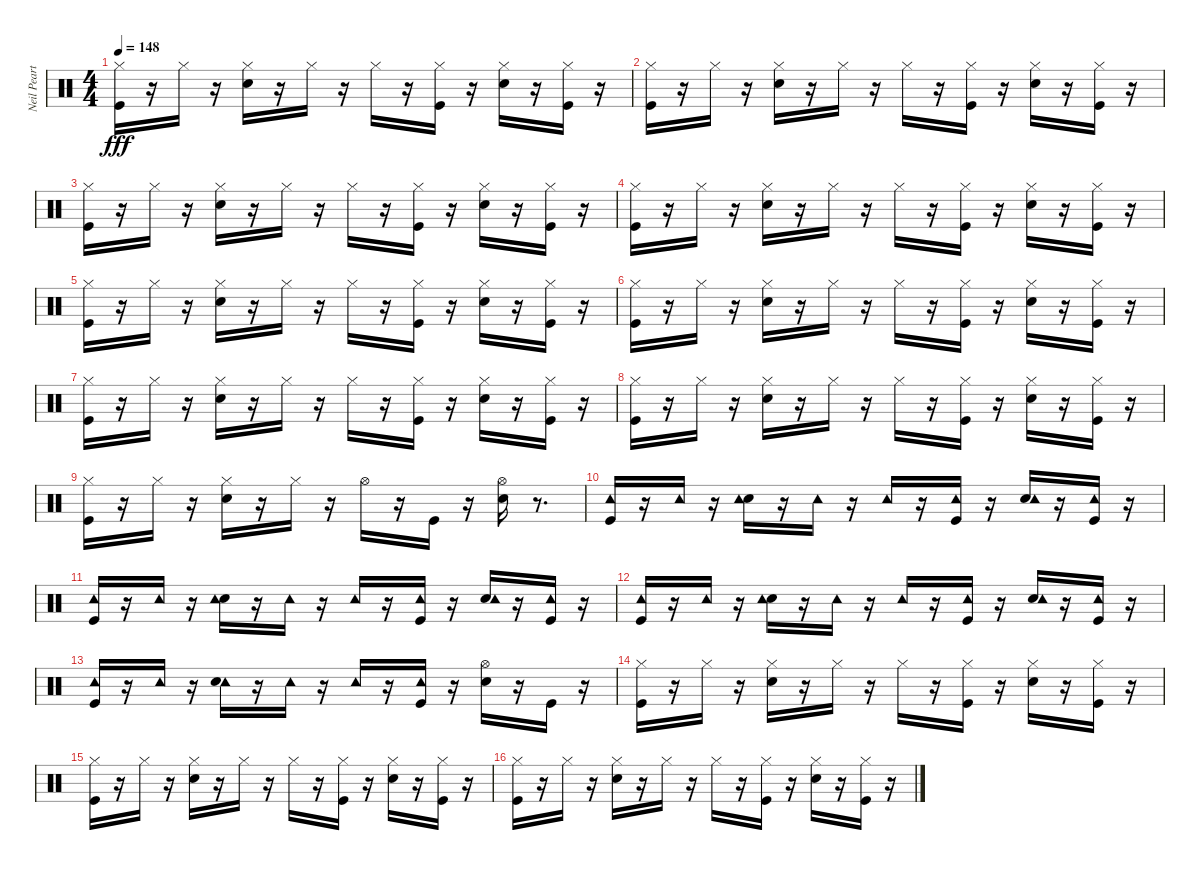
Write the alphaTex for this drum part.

\track ("Neil Peart" "Neil Peart") {instrument percussion}
\staff {score}
\articulation defaults
\ts (4 4)
\tempo 148
\clef neutral
\ks c
("Hi-Hat (closed)" "Kick (hit)").16{dy fff} r.16 "Hi-Hat (closed)".16 r.16 ("Hi-Hat (closed)" "Snare (hit) 2").16 r.16 "Hi-Hat (closed)".16 r.16 "Hi-Hat (closed)".16 r.16 ("Hi-Hat (closed)" "Kick (hit)").16 r.16 ("Hi-Hat (closed)" "Snare (hit) 2").16 r.16 ("Hi-Hat (closed)" "Kick (hit)").16 r.16 |
("Hi-Hat (closed)" "Kick (hit)").16 r.16 "Hi-Hat (closed)".16 r.16 ("Hi-Hat (closed)" "Snare (hit) 2").16 r.16 "Hi-Hat (closed)".16 r.16 "Hi-Hat (closed)".16 r.16 ("Hi-Hat (closed)" "Kick (hit)").16 r.16 ("Hi-Hat (closed)" "Snare (hit) 2").16 r.16 ("Hi-Hat (closed)" "Kick (hit)").16 r.16 |
("Hi-Hat (closed)" "Kick (hit)").16 r.16 "Hi-Hat (closed)".16 r.16 ("Hi-Hat (closed)" "Snare (hit) 2").16 r.16 "Hi-Hat (closed)".16 r.16 "Hi-Hat (closed)".16 r.16 ("Hi-Hat (closed)" "Kick (hit)").16 r.16 ("Hi-Hat (closed)" "Snare (hit) 2").16 r.16 ("Hi-Hat (closed)" "Kick (hit)").16 r.16 |
("Hi-Hat (closed)" "Kick (hit)").16 r.16 "Hi-Hat (closed)".16 r.16 ("Hi-Hat (closed)" "Snare (hit) 2").16 r.16 "Hi-Hat (closed)".16 r.16 "Hi-Hat (closed)".16 r.16 ("Hi-Hat (closed)" "Kick (hit)").16 r.16 ("Hi-Hat (closed)" "Snare (hit) 2").16 r.16 ("Hi-Hat (closed)" "Kick (hit)").16 r.16 |
("Hi-Hat (closed)" "Kick (hit)").16 r.16 "Hi-Hat (closed)".16 r.16 ("Hi-Hat (closed)" "Snare (hit) 2").16 r.16 "Hi-Hat (closed)".16 r.16 "Hi-Hat (closed)".16 r.16 ("Hi-Hat (closed)" "Kick (hit)").16 r.16 ("Hi-Hat (closed)" "Snare (hit) 2").16 r.16 ("Hi-Hat (closed)" "Kick (hit)").16 r.16 |
("Hi-Hat (closed)" "Kick (hit)").16 r.16 "Hi-Hat (closed)".16 r.16 ("Hi-Hat (closed)" "Snare (hit) 2").16 r.16 "Hi-Hat (closed)".16 r.16 "Hi-Hat (closed)".16 r.16 ("Hi-Hat (closed)" "Kick (hit)").16 r.16 ("Hi-Hat (closed)" "Snare (hit) 2").16 r.16 ("Hi-Hat (closed)" "Kick (hit)").16 r.16 |
("Hi-Hat (closed)" "Kick (hit)").16 r.16 "Hi-Hat (closed)".16 r.16 ("Hi-Hat (closed)" "Snare (hit) 2").16 r.16 "Hi-Hat (closed)".16 r.16 "Hi-Hat (closed)".16 r.16 ("Hi-Hat (closed)" "Kick (hit)").16 r.16 ("Hi-Hat (closed)" "Snare (hit) 2").16 r.16 ("Hi-Hat (closed)" "Kick (hit)").16 r.16 |
("Hi-Hat (closed)" "Kick (hit)").16 r.16 "Hi-Hat (closed)".16 r.16 ("Hi-Hat (closed)" "Snare (hit) 2").16 r.16 "Hi-Hat (closed)".16 r.16 "Hi-Hat (closed)".16 r.16 ("Hi-Hat (closed)" "Kick (hit)").16 r.16 ("Hi-Hat (closed)" "Snare (hit) 2").16 r.16 ("Hi-Hat (closed)" "Kick (hit)").16 r.16 |
("Kick (hit)" "Hi-Hat (closed)").16 r.16 "Hi-Hat (closed)".16 r.16 ("Snare (hit) 2" "Hi-Hat (closed)").16 r.16 "Hi-Hat (closed)".16 r.16 "Hi-Hat (open)".16 r.16 "Kick (hit)".16 r.16 ("Snare (hit) 2" "Hi-Hat (open)").16 r.8{d} |
("Kick (hit)" "Tambourine (hit)").16 r.16 "Tambourine (hit)".16 r.16 ("Snare (hit) 2" "Tambourine (hit)").16 r.16 "Tambourine (hit)".16 r.16 "Tambourine (hit)".16 r.16 ("Kick (hit)" "Tambourine (hit)").16 r.16 ("Snare (hit) 2" "Tambourine (hit)").16 r.16 ("Kick (hit)" "Tambourine (hit)").16 r.16 |
("Kick (hit)" "Tambourine (hit)").16 r.16 "Tambourine (hit)".16 r.16 ("Snare (hit) 2" "Tambourine (hit)").16 r.16 "Tambourine (hit)".16 r.16 "Tambourine (hit)".16 r.16 ("Kick (hit)" "Tambourine (hit)").16 r.16 ("Snare (hit) 2" "Tambourine (hit)").16 r.16 ("Kick (hit)" "Tambourine (hit)").16 r.16 |
("Kick (hit)" "Tambourine (hit)").16 r.16 "Tambourine (hit)".16 r.16 ("Snare (hit) 2" "Tambourine (hit)").16 r.16 "Tambourine (hit)".16 r.16 "Tambourine (hit)".16 r.16 ("Kick (hit)" "Tambourine (hit)").16 r.16 ("Snare (hit) 2" "Tambourine (hit)").16 r.16 ("Kick (hit)" "Tambourine (hit)").16 r.16 |
("Tambourine (hit)" "Kick (hit)").16 r.16 "Tambourine (hit)".16 r.16 ("Tambourine (hit)" "Snare (hit) 2").16 r.16 "Tambourine (hit)".16 r.16 "Tambourine (hit)".16 r.16 ("Tambourine (hit)" "Kick (hit)").16 r.16 ("Hi-Hat (open)" "Snare (hit) 2").16 r.16 "Kick (hit)".16 r.16 |
("Hi-Hat (closed)" "Kick (hit)").16 r.16 "Hi-Hat (closed)".16 r.16 ("Hi-Hat (closed)" "Snare (hit) 2").16 r.16 "Hi-Hat (closed)".16 r.16 "Hi-Hat (closed)".16 r.16 ("Hi-Hat (closed)" "Kick (hit)").16 r.16 ("Hi-Hat (closed)" "Snare (hit) 2").16 r.16 ("Hi-Hat (closed)" "Kick (hit)").16 r.16 |
("Hi-Hat (closed)" "Kick (hit)").16 r.16 "Hi-Hat (closed)".16 r.16 ("Hi-Hat (closed)" "Snare (hit) 2").16 r.16 "Hi-Hat (closed)".16 r.16 "Hi-Hat (closed)".16 r.16 ("Hi-Hat (closed)" "Kick (hit)").16 r.16 ("Hi-Hat (closed)" "Snare (hit) 2").16 r.16 ("Hi-Hat (closed)" "Kick (hit)").16 r.16 |
("Hi-Hat (closed)" "Kick (hit)").16 r.16 "Hi-Hat (closed)".16 r.16 ("Hi-Hat (closed)" "Snare (hit) 2").16 r.16 "Hi-Hat (closed)".16 r.16 "Hi-Hat (closed)".16 r.16 ("Hi-Hat (closed)" "Kick (hit)").16 r.16 ("Hi-Hat (closed)" "Snare (hit) 2").16 r.16 ("Hi-Hat (closed)" "Kick (hit)").16 r.16
